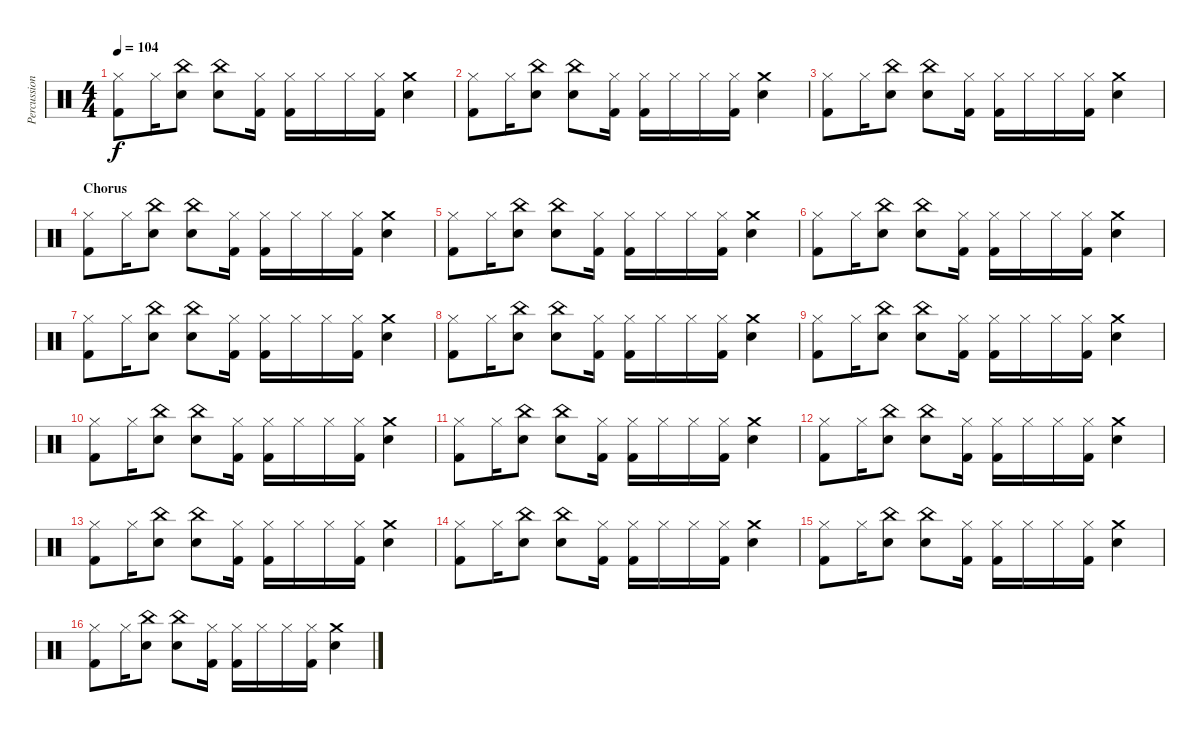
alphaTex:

\track ("Percussion" "Percussion") {instrument percussion}
\staff {score}
\articulation defaults
\ts (4 4)
\tempo 104
\clef neutral
\ks c
("Hi-Hat (closed)" "Kick (hit) 2").8{dy f} "Hi-Hat (closed)".16 ("Snare (hit) 2" "China (hit)").8 ("Snare (hit) 2" "China (hit)").8 ("Hi-Hat (closed)" "Kick (hit) 2").16 ("Hi-Hat (closed)" "Kick (hit) 2").16 "Hi-Hat (closed)".16 "Hi-Hat (closed)".16 ("Hi-Hat (closed)" "Kick (hit) 2").16 ("Crash medium (hit)" "Snare (hit) 2").4 |
("Hi-Hat (closed)" "Kick (hit) 2").8 "Hi-Hat (closed)".16 ("Snare (hit) 2" "China (hit)").8 ("Snare (hit) 2" "China (hit)").8 ("Hi-Hat (closed)" "Kick (hit) 2").16 ("Hi-Hat (closed)" "Kick (hit) 2").16 "Hi-Hat (closed)".16 "Hi-Hat (closed)".16 ("Hi-Hat (closed)" "Kick (hit) 2").16 ("Crash medium (hit)" "Snare (hit) 2").4 |
("Hi-Hat (closed)" "Kick (hit) 2").8 "Hi-Hat (closed)".16 ("Snare (hit) 2" "China (hit)").8 ("Snare (hit) 2" "China (hit)").8 ("Hi-Hat (closed)" "Kick (hit) 2").16 ("Hi-Hat (closed)" "Kick (hit) 2").16 "Hi-Hat (closed)".16 "Hi-Hat (closed)".16 ("Hi-Hat (closed)" "Kick (hit) 2").16 ("Crash medium (hit)" "Snare (hit) 2").4 |
\section ("" "Chorus")
("Hi-Hat (closed)" "Kick (hit) 2").8 "Hi-Hat (closed)".16 ("Snare (hit) 2" "China (hit)").8 ("Snare (hit) 2" "China (hit)").8 ("Hi-Hat (closed)" "Kick (hit) 2").16 ("Hi-Hat (closed)" "Kick (hit) 2").16 "Hi-Hat (closed)".16 "Hi-Hat (closed)".16 ("Hi-Hat (closed)" "Kick (hit) 2").16 ("Crash medium (hit)" "Snare (hit) 2").4 |
("Hi-Hat (closed)" "Kick (hit) 2").8 "Hi-Hat (closed)".16 ("Snare (hit) 2" "China (hit)").8 ("Snare (hit) 2" "China (hit)").8 ("Hi-Hat (closed)" "Kick (hit) 2").16 ("Hi-Hat (closed)" "Kick (hit) 2").16 "Hi-Hat (closed)".16 "Hi-Hat (closed)".16 ("Hi-Hat (closed)" "Kick (hit) 2").16 ("Crash medium (hit)" "Snare (hit) 2").4 |
("Hi-Hat (closed)" "Kick (hit) 2").8 "Hi-Hat (closed)".16 ("Snare (hit) 2" "China (hit)").8 ("Snare (hit) 2" "China (hit)").8 ("Hi-Hat (closed)" "Kick (hit) 2").16 ("Hi-Hat (closed)" "Kick (hit) 2").16 "Hi-Hat (closed)".16 "Hi-Hat (closed)".16 ("Hi-Hat (closed)" "Kick (hit) 2").16 ("Crash medium (hit)" "Snare (hit) 2").4 |
("Hi-Hat (closed)" "Kick (hit) 2").8 "Hi-Hat (closed)".16 ("Snare (hit) 2" "China (hit)").8 ("Snare (hit) 2" "China (hit)").8 ("Hi-Hat (closed)" "Kick (hit) 2").16 ("Hi-Hat (closed)" "Kick (hit) 2").16 "Hi-Hat (closed)".16 "Hi-Hat (closed)".16 ("Hi-Hat (closed)" "Kick (hit) 2").16 ("Crash medium (hit)" "Snare (hit) 2").4 |
("Hi-Hat (closed)" "Kick (hit) 2").8 "Hi-Hat (closed)".16 ("Snare (hit) 2" "China (hit)").8 ("Snare (hit) 2" "China (hit)").8 ("Hi-Hat (closed)" "Kick (hit) 2").16 ("Hi-Hat (closed)" "Kick (hit) 2").16 "Hi-Hat (closed)".16 "Hi-Hat (closed)".16 ("Hi-Hat (closed)" "Kick (hit) 2").16 ("Crash medium (hit)" "Snare (hit) 2").4 |
("Hi-Hat (closed)" "Kick (hit) 2").8 "Hi-Hat (closed)".16 ("Snare (hit) 2" "China (hit)").8 ("Snare (hit) 2" "China (hit)").8 ("Hi-Hat (closed)" "Kick (hit) 2").16 ("Hi-Hat (closed)" "Kick (hit) 2").16 "Hi-Hat (closed)".16 "Hi-Hat (closed)".16 ("Hi-Hat (closed)" "Kick (hit) 2").16 ("Crash medium (hit)" "Snare (hit) 2").4 |
("Hi-Hat (closed)" "Kick (hit) 2").8 "Hi-Hat (closed)".16 ("Snare (hit) 2" "China (hit)").8 ("Snare (hit) 2" "China (hit)").8 ("Hi-Hat (closed)" "Kick (hit) 2").16 ("Hi-Hat (closed)" "Kick (hit) 2").16 "Hi-Hat (closed)".16 "Hi-Hat (closed)".16 ("Hi-Hat (closed)" "Kick (hit) 2").16 ("Crash medium (hit)" "Snare (hit) 2").4 |
("Hi-Hat (closed)" "Kick (hit) 2").8 "Hi-Hat (closed)".16 ("Snare (hit) 2" "China (hit)").8 ("Snare (hit) 2" "China (hit)").8 ("Hi-Hat (closed)" "Kick (hit) 2").16 ("Hi-Hat (closed)" "Kick (hit) 2").16 "Hi-Hat (closed)".16 "Hi-Hat (closed)".16 ("Hi-Hat (closed)" "Kick (hit) 2").16 ("Crash medium (hit)" "Snare (hit) 2").4 |
("Hi-Hat (closed)" "Kick (hit) 2").8 "Hi-Hat (closed)".16 ("Snare (hit) 2" "China (hit)").8 ("Snare (hit) 2" "China (hit)").8 ("Hi-Hat (closed)" "Kick (hit) 2").16 ("Hi-Hat (closed)" "Kick (hit) 2").16 "Hi-Hat (closed)".16 "Hi-Hat (closed)".16 ("Hi-Hat (closed)" "Kick (hit) 2").16 ("Crash medium (hit)" "Snare (hit) 2").4 |
("Hi-Hat (closed)" "Kick (hit) 2").8 "Hi-Hat (closed)".16 ("Snare (hit) 2" "China (hit)").8 ("Snare (hit) 2" "China (hit)").8 ("Hi-Hat (closed)" "Kick (hit) 2").16 ("Hi-Hat (closed)" "Kick (hit) 2").16 "Hi-Hat (closed)".16 "Hi-Hat (closed)".16 ("Hi-Hat (closed)" "Kick (hit) 2").16 ("Crash medium (hit)" "Snare (hit) 2").4 |
("Hi-Hat (closed)" "Kick (hit) 2").8 "Hi-Hat (closed)".16 ("Snare (hit) 2" "China (hit)").8 ("Snare (hit) 2" "China (hit)").8 ("Hi-Hat (closed)" "Kick (hit) 2").16 ("Hi-Hat (closed)" "Kick (hit) 2").16 "Hi-Hat (closed)".16 "Hi-Hat (closed)".16 ("Hi-Hat (closed)" "Kick (hit) 2").16 ("Crash medium (hit)" "Snare (hit) 2").4 |
("Hi-Hat (closed)" "Kick (hit) 2").8 "Hi-Hat (closed)".16 ("Snare (hit) 2" "China (hit)").8 ("Snare (hit) 2" "China (hit)").8 ("Hi-Hat (closed)" "Kick (hit) 2").16 ("Hi-Hat (closed)" "Kick (hit) 2").16 "Hi-Hat (closed)".16 "Hi-Hat (closed)".16 ("Hi-Hat (closed)" "Kick (hit) 2").16 ("Crash medium (hit)" "Snare (hit) 2").4 |
("Hi-Hat (closed)" "Kick (hit) 2").8 "Hi-Hat (closed)".16 ("Snare (hit) 2" "China (hit)").8 ("Snare (hit) 2" "China (hit)").8 ("Hi-Hat (closed)" "Kick (hit) 2").16 ("Hi-Hat (closed)" "Kick (hit) 2").16 "Hi-Hat (closed)".16 "Hi-Hat (closed)".16 ("Hi-Hat (closed)" "Kick (hit) 2").16 ("Crash medium (hit)" "Snare (hit) 2").4
